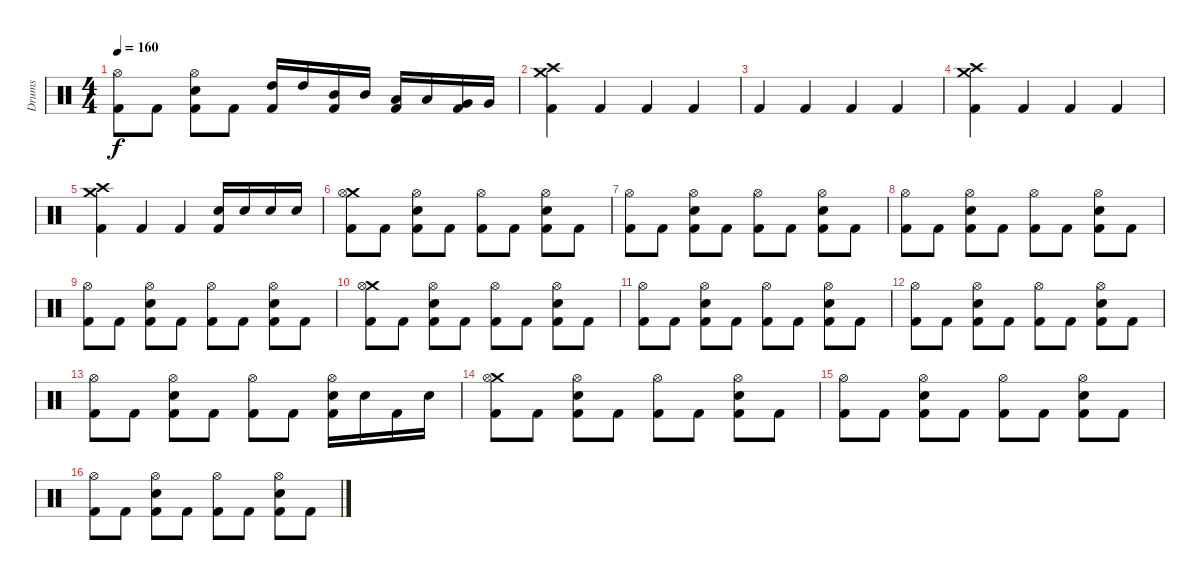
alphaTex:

\track ("Drums" "Drums") {instrument percussion}
\staff {score}
\articulation defaults
\ts (4 4)
\tempo 160
\clef neutral
\ks c
("Hi-Hat (open)" "Kick (hit) 2").8{dy f} "Kick (hit) 2".8 ("Hi-Hat (open)" "Kick (hit) 2" "Snare (hit) 2").8 "Kick (hit) 2".8 ("Kick (hit) 2" "High Tom (hit)").16 "High Tom (hit)".16 ("Kick (hit) 2" "Mid Tom (hit)").16 "Mid Tom (hit)".16 ("Kick (hit) 2" "Low Tom (hit)").16 "Low Tom (hit)".16 ("Kick (hit) 2" "Very Low Tom (hit)").16 "Very Low Tom (hit)".16 |
("Crash medium (hit)" "Crash high (hit)" "Kick (hit) 2").4 "Kick (hit) 2".4 "Kick (hit) 2".4 "Kick (hit) 2".4 |
"Kick (hit) 2".4 "Kick (hit) 2".4 "Kick (hit) 2".4 "Kick (hit) 2".4 |
("Crash medium (hit)" "Crash high (hit)" "Kick (hit) 2").4 "Kick (hit) 2".4 "Kick (hit) 2".4 "Kick (hit) 2".4 |
("Crash medium (hit)" "Crash high (hit)" "Kick (hit) 2").4 "Kick (hit) 2".4 "Kick (hit) 2".4 ("Kick (hit) 2" "Snare (hit) 2").16 "Snare (hit) 2".16 "Snare (hit) 2".16 "Snare (hit) 2".16 |
("Crash medium (hit)" "Hi-Hat (open)" "Kick (hit) 2").8 "Kick (hit) 2".8 ("Hi-Hat (open)" "Kick (hit) 2" "Snare (hit) 2").8 "Kick (hit) 2".8 ("Hi-Hat (open)" "Kick (hit) 2").8 "Kick (hit) 2".8 ("Hi-Hat (open)" "Kick (hit) 2" "Snare (hit) 2").8 "Kick (hit) 2".8 |
("Hi-Hat (open)" "Kick (hit) 2").8 "Kick (hit) 2".8 ("Hi-Hat (open)" "Kick (hit) 2" "Snare (hit) 2").8 "Kick (hit) 2".8 ("Hi-Hat (open)" "Kick (hit) 2").8 "Kick (hit) 2".8 ("Hi-Hat (open)" "Kick (hit) 2" "Snare (hit) 2").8 "Kick (hit) 2".8 |
("Hi-Hat (open)" "Kick (hit) 2").8 "Kick (hit) 2".8 ("Hi-Hat (open)" "Kick (hit) 2" "Snare (hit) 2").8 "Kick (hit) 2".8 ("Hi-Hat (open)" "Kick (hit) 2").8 "Kick (hit) 2".8 ("Hi-Hat (open)" "Kick (hit) 2" "Snare (hit) 2").8 "Kick (hit) 2".8 |
("Hi-Hat (open)" "Kick (hit) 2").8 "Kick (hit) 2".8 ("Hi-Hat (open)" "Kick (hit) 2" "Snare (hit) 2").8 "Kick (hit) 2".8 ("Hi-Hat (open)" "Kick (hit) 2").8 "Kick (hit) 2".8 ("Hi-Hat (open)" "Kick (hit) 2" "Snare (hit) 2").8 "Kick (hit) 2".8 |
("Crash medium (hit)" "Hi-Hat (open)" "Kick (hit) 2").8 "Kick (hit) 2".8 ("Hi-Hat (open)" "Kick (hit) 2" "Snare (hit) 2").8 "Kick (hit) 2".8 ("Hi-Hat (open)" "Kick (hit) 2").8 "Kick (hit) 2".8 ("Hi-Hat (open)" "Kick (hit) 2" "Snare (hit) 2").8 "Kick (hit) 2".8 |
("Hi-Hat (open)" "Kick (hit) 2").8 "Kick (hit) 2".8 ("Hi-Hat (open)" "Kick (hit) 2" "Snare (hit) 2").8 "Kick (hit) 2".8 ("Hi-Hat (open)" "Kick (hit) 2").8 "Kick (hit) 2".8 ("Hi-Hat (open)" "Kick (hit) 2" "Snare (hit) 2").8 "Kick (hit) 2".8 |
("Hi-Hat (open)" "Kick (hit) 2").8 "Kick (hit) 2".8 ("Hi-Hat (open)" "Kick (hit) 2" "Snare (hit) 2").8 "Kick (hit) 2".8 ("Hi-Hat (open)" "Kick (hit) 2").8 "Kick (hit) 2".8 ("Hi-Hat (open)" "Kick (hit) 2" "Snare (hit) 2").8 "Kick (hit) 2".8 |
("Hi-Hat (open)" "Kick (hit) 2").8 "Kick (hit) 2".8 ("Hi-Hat (open)" "Kick (hit) 2" "Snare (hit) 2").8 "Kick (hit) 2".8 ("Hi-Hat (open)" "Kick (hit) 2").8 "Kick (hit) 2".8 ("Hi-Hat (open)" "Kick (hit) 2" "Snare (hit) 2").16 "Snare (hit) 2".16 "Kick (hit) 2".16 "Snare (hit) 2".16 |
("Crash medium (hit)" "Hi-Hat (open)" "Kick (hit) 2").8 "Kick (hit) 2".8 ("Hi-Hat (open)" "Kick (hit) 2" "Snare (hit) 2").8 "Kick (hit) 2".8 ("Hi-Hat (open)" "Kick (hit) 2").8 "Kick (hit) 2".8 ("Hi-Hat (open)" "Kick (hit) 2" "Snare (hit) 2").8 "Kick (hit) 2".8 |
("Hi-Hat (open)" "Kick (hit) 2").8 "Kick (hit) 2".8 ("Hi-Hat (open)" "Kick (hit) 2" "Snare (hit) 2").8 "Kick (hit) 2".8 ("Hi-Hat (open)" "Kick (hit) 2").8 "Kick (hit) 2".8 ("Hi-Hat (open)" "Kick (hit) 2" "Snare (hit) 2").8 "Kick (hit) 2".8 |
("Hi-Hat (open)" "Kick (hit) 2").8 "Kick (hit) 2".8 ("Hi-Hat (open)" "Kick (hit) 2" "Snare (hit) 2").8 "Kick (hit) 2".8 ("Hi-Hat (open)" "Kick (hit) 2").8 "Kick (hit) 2".8 ("Hi-Hat (open)" "Kick (hit) 2" "Snare (hit) 2").8 "Kick (hit) 2".8
